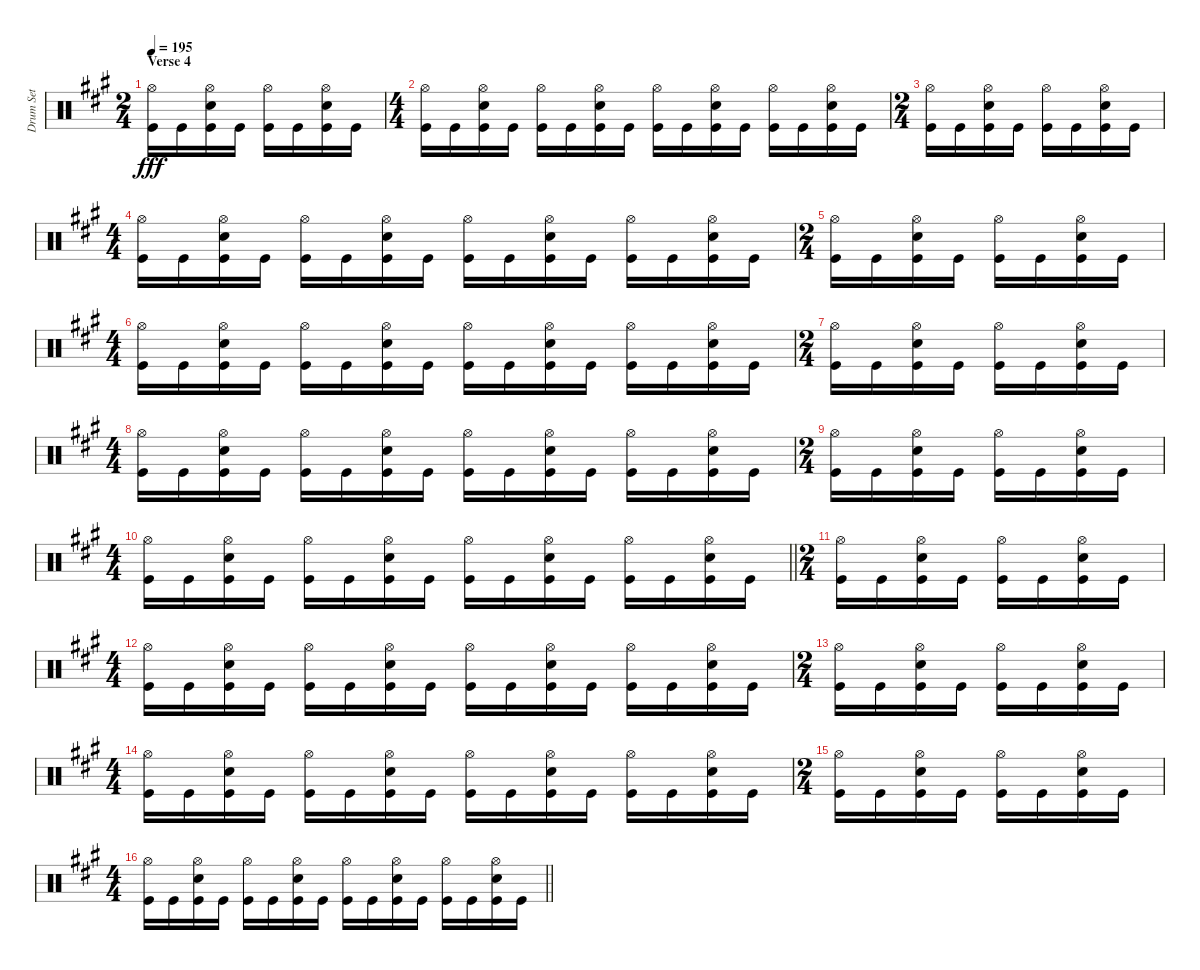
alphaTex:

\track ("Drum Set" "Drum Set") {instrument percussion}
\staff {score}
\articulation defaults
\ts (2 4)
\section ("" "Verse 4")
\tempo 195
\clef neutral
\ks a
("Hi-Hat (open)" "Kick (hit)").16{dy fff} "Kick (hit)".16 ("Electric Snare (hit)" "Hi-Hat (open)" "Kick (hit)").16 "Kick (hit)".16 ("Hi-Hat (open)" "Kick (hit)").16 "Kick (hit)".16 ("Electric Snare (hit)" "Hi-Hat (open)" "Kick (hit)").16 "Kick (hit)".16 |
\ts (4 4)
("Hi-Hat (open)" "Kick (hit)").16 "Kick (hit)".16 ("Electric Snare (hit)" "Hi-Hat (open)" "Kick (hit)").16 "Kick (hit)".16 ("Hi-Hat (open)" "Kick (hit)").16 "Kick (hit)".16 ("Electric Snare (hit)" "Hi-Hat (open)" "Kick (hit)").16 "Kick (hit)".16 ("Hi-Hat (open)" "Kick (hit)").16 "Kick (hit)".16 ("Electric Snare (hit)" "Hi-Hat (open)" "Kick (hit)").16 "Kick (hit)".16 ("Hi-Hat (open)" "Kick (hit)").16 "Kick (hit)".16 ("Electric Snare (hit)" "Hi-Hat (open)" "Kick (hit)").16 "Kick (hit)".16 |
\ts (2 4)
("Hi-Hat (open)" "Kick (hit)").16 "Kick (hit)".16 ("Electric Snare (hit)" "Hi-Hat (open)" "Kick (hit)").16 "Kick (hit)".16 ("Hi-Hat (open)" "Kick (hit)").16 "Kick (hit)".16 ("Electric Snare (hit)" "Hi-Hat (open)" "Kick (hit)").16 "Kick (hit)".16 |
\ts (4 4)
("Hi-Hat (open)" "Kick (hit)").16 "Kick (hit)".16 ("Electric Snare (hit)" "Hi-Hat (open)" "Kick (hit)").16 "Kick (hit)".16 ("Hi-Hat (open)" "Kick (hit)").16 "Kick (hit)".16 ("Electric Snare (hit)" "Hi-Hat (open)" "Kick (hit)").16 "Kick (hit)".16 ("Hi-Hat (open)" "Kick (hit)").16 "Kick (hit)".16 ("Electric Snare (hit)" "Hi-Hat (open)" "Kick (hit)").16 "Kick (hit)".16 ("Hi-Hat (open)" "Kick (hit)").16 "Kick (hit)".16 ("Electric Snare (hit)" "Hi-Hat (open)" "Kick (hit)").16 "Kick (hit)".16 |
\ts (2 4)
("Hi-Hat (open)" "Kick (hit)").16 "Kick (hit)".16 ("Electric Snare (hit)" "Hi-Hat (open)" "Kick (hit)").16 "Kick (hit)".16 ("Hi-Hat (open)" "Kick (hit)").16 "Kick (hit)".16 ("Electric Snare (hit)" "Hi-Hat (open)" "Kick (hit)").16 "Kick (hit)".16 |
\ts (4 4)
("Hi-Hat (open)" "Kick (hit)").16 "Kick (hit)".16 ("Electric Snare (hit)" "Hi-Hat (open)" "Kick (hit)").16 "Kick (hit)".16 ("Hi-Hat (open)" "Kick (hit)").16 "Kick (hit)".16 ("Electric Snare (hit)" "Hi-Hat (open)" "Kick (hit)").16 "Kick (hit)".16 ("Hi-Hat (open)" "Kick (hit)").16 "Kick (hit)".16 ("Electric Snare (hit)" "Hi-Hat (open)" "Kick (hit)").16 "Kick (hit)".16 ("Hi-Hat (open)" "Kick (hit)").16 "Kick (hit)".16 ("Electric Snare (hit)" "Hi-Hat (open)" "Kick (hit)").16 "Kick (hit)".16 |
\ts (2 4)
("Hi-Hat (open)" "Kick (hit)").16 "Kick (hit)".16 ("Electric Snare (hit)" "Hi-Hat (open)" "Kick (hit)").16 "Kick (hit)".16 ("Hi-Hat (open)" "Kick (hit)").16 "Kick (hit)".16 ("Electric Snare (hit)" "Hi-Hat (open)" "Kick (hit)").16 "Kick (hit)".16 |
\ts (4 4)
("Hi-Hat (open)" "Kick (hit)").16 "Kick (hit)".16 ("Electric Snare (hit)" "Hi-Hat (open)" "Kick (hit)").16 "Kick (hit)".16 ("Hi-Hat (open)" "Kick (hit)").16 "Kick (hit)".16 ("Electric Snare (hit)" "Hi-Hat (open)" "Kick (hit)").16 "Kick (hit)".16 ("Hi-Hat (open)" "Kick (hit)").16 "Kick (hit)".16 ("Electric Snare (hit)" "Hi-Hat (open)" "Kick (hit)").16 "Kick (hit)".16 ("Hi-Hat (open)" "Kick (hit)").16 "Kick (hit)".16 ("Electric Snare (hit)" "Hi-Hat (open)" "Kick (hit)").16 "Kick (hit)".16 |
\ts (2 4)
("Hi-Hat (open)" "Kick (hit)").16 "Kick (hit)".16 ("Electric Snare (hit)" "Hi-Hat (open)" "Kick (hit)").16 "Kick (hit)".16 ("Hi-Hat (open)" "Kick (hit)").16 "Kick (hit)".16 ("Electric Snare (hit)" "Hi-Hat (open)" "Kick (hit)").16 "Kick (hit)".16 |
\ts (4 4)
\barLineRight lightlight
("Hi-Hat (open)" "Kick (hit)").16 "Kick (hit)".16 ("Electric Snare (hit)" "Hi-Hat (open)" "Kick (hit)").16 "Kick (hit)".16 ("Hi-Hat (open)" "Kick (hit)").16 "Kick (hit)".16 ("Electric Snare (hit)" "Hi-Hat (open)" "Kick (hit)").16 "Kick (hit)".16 ("Hi-Hat (open)" "Kick (hit)").16 "Kick (hit)".16 ("Electric Snare (hit)" "Hi-Hat (open)" "Kick (hit)").16 "Kick (hit)".16 ("Hi-Hat (open)" "Kick (hit)").16 "Kick (hit)".16 ("Electric Snare (hit)" "Hi-Hat (open)" "Kick (hit)").16 "Kick (hit)".16 |
\ts (2 4)
("Hi-Hat (open)" "Kick (hit)").16 "Kick (hit)".16 ("Electric Snare (hit)" "Hi-Hat (open)" "Kick (hit)").16 "Kick (hit)".16 ("Hi-Hat (open)" "Kick (hit)").16 "Kick (hit)".16 ("Electric Snare (hit)" "Hi-Hat (open)" "Kick (hit)").16 "Kick (hit)".16 |
\ts (4 4)
("Hi-Hat (open)" "Kick (hit)").16 "Kick (hit)".16 ("Electric Snare (hit)" "Hi-Hat (open)" "Kick (hit)").16 "Kick (hit)".16 ("Hi-Hat (open)" "Kick (hit)").16 "Kick (hit)".16 ("Electric Snare (hit)" "Hi-Hat (open)" "Kick (hit)").16 "Kick (hit)".16 ("Hi-Hat (open)" "Kick (hit)").16 "Kick (hit)".16 ("Electric Snare (hit)" "Hi-Hat (open)" "Kick (hit)").16 "Kick (hit)".16 ("Hi-Hat (open)" "Kick (hit)").16 "Kick (hit)".16 ("Electric Snare (hit)" "Hi-Hat (open)" "Kick (hit)").16 "Kick (hit)".16 |
\ts (2 4)
("Hi-Hat (open)" "Kick (hit)").16 "Kick (hit)".16 ("Electric Snare (hit)" "Hi-Hat (open)" "Kick (hit)").16 "Kick (hit)".16 ("Hi-Hat (open)" "Kick (hit)").16 "Kick (hit)".16 ("Electric Snare (hit)" "Hi-Hat (open)" "Kick (hit)").16 "Kick (hit)".16 |
\ts (4 4)
("Hi-Hat (open)" "Kick (hit)").16 "Kick (hit)".16 ("Electric Snare (hit)" "Hi-Hat (open)" "Kick (hit)").16 "Kick (hit)".16 ("Hi-Hat (open)" "Kick (hit)").16 "Kick (hit)".16 ("Electric Snare (hit)" "Hi-Hat (open)" "Kick (hit)").16 "Kick (hit)".16 ("Hi-Hat (open)" "Kick (hit)").16 "Kick (hit)".16 ("Electric Snare (hit)" "Hi-Hat (open)" "Kick (hit)").16 "Kick (hit)".16 ("Hi-Hat (open)" "Kick (hit)").16 "Kick (hit)".16 ("Electric Snare (hit)" "Hi-Hat (open)" "Kick (hit)").16 "Kick (hit)".16 |
\ts (2 4)
("Hi-Hat (open)" "Kick (hit)").16 "Kick (hit)".16 ("Electric Snare (hit)" "Hi-Hat (open)" "Kick (hit)").16 "Kick (hit)".16 ("Hi-Hat (open)" "Kick (hit)").16 "Kick (hit)".16 ("Electric Snare (hit)" "Hi-Hat (open)" "Kick (hit)").16 "Kick (hit)".16 |
\ts (4 4)
\barLineRight lightlight
("Hi-Hat (open)" "Kick (hit)").16 "Kick (hit)".16 ("Electric Snare (hit)" "Hi-Hat (open)" "Kick (hit)").16 "Kick (hit)".16 ("Hi-Hat (open)" "Kick (hit)").16 "Kick (hit)".16 ("Electric Snare (hit)" "Hi-Hat (open)" "Kick (hit)").16 "Kick (hit)".16 ("Hi-Hat (open)" "Kick (hit)").16 "Kick (hit)".16 ("Electric Snare (hit)" "Hi-Hat (open)" "Kick (hit)").16 "Kick (hit)".16 ("Hi-Hat (open)" "Kick (hit)").16 "Kick (hit)".16 ("Electric Snare (hit)" "Hi-Hat (open)" "Kick (hit)").16 "Kick (hit)".16
